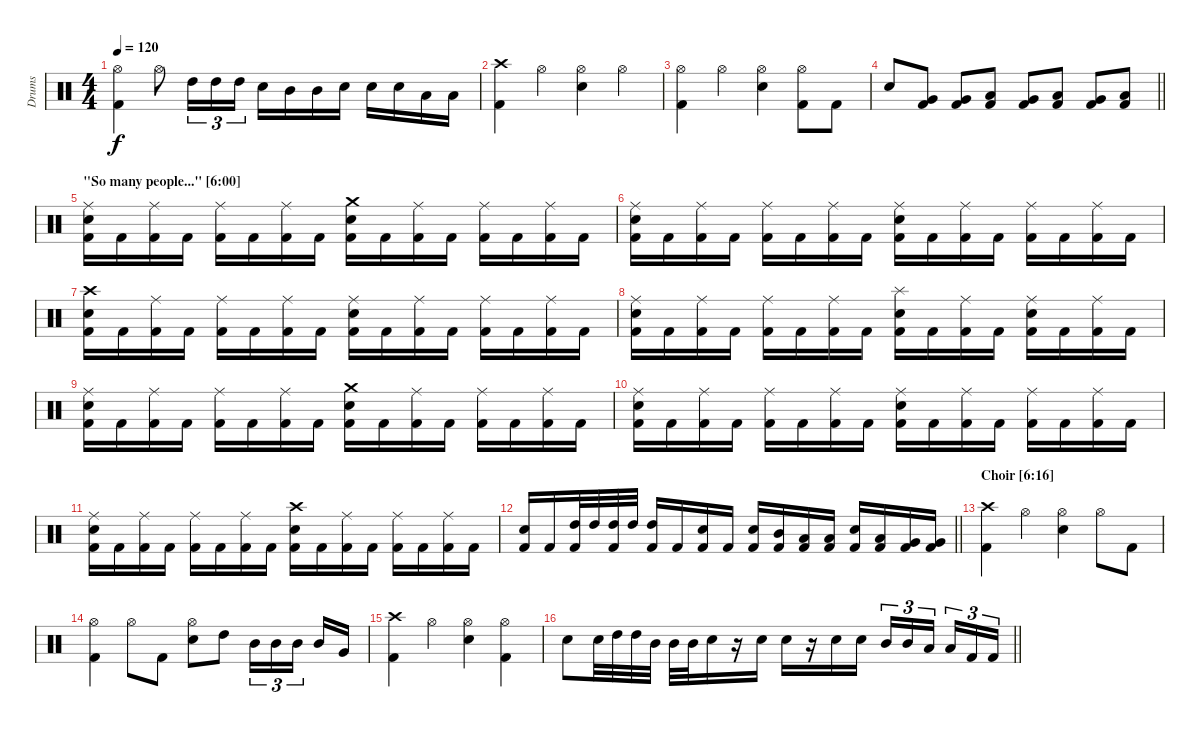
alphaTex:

\track ("Drums" "Drums") {instrument percussion}
\staff {score}
\articulation defaults
\ts (4 4)
\tempo 120
\clef neutral
\ks c
("Hi-Hat (open)" "Kick (hit) 2").4{dy f} "Hi-Hat (open)".8 "High Tom (hit)".16{tu (3 2)} "High Tom (hit)".16{tu (3 2)} "High Tom (hit)".16{tu (3 2)} "Snare (hit) 2".16 "Mid Tom (hit)".16 "Mid Tom (hit)".16 "Snare (hit) 2".16 "Snare (hit) 2".16 "Snare (hit) 2".16 "Low Tom (hit)".16 "Low Tom (hit)".16 |
("Crash high (hit)" "Kick (hit) 2").4 "Hi-Hat (open)".4 ("Hi-Hat (open)" "Snare (hit) 2").4 "Hi-Hat (open)".4 |
("Hi-Hat (open)" "Kick (hit) 2").4 "Hi-Hat (open)".4 ("Hi-Hat (open)" "Snare (hit) 2").4 ("Hi-Hat (open)" "Kick (hit) 2").8 "Kick (hit) 2".8 |
\barLineRight lightlight "Snare (hit) 2".8
("Very Low Tom (hit)" "Kick (hit) 2").8 ("Very Low Tom (hit)" "Kick (hit) 2").8 ("Low Tom (hit)" "Kick (hit) 2").8 ("Very Low Tom (hit)" "Kick (hit) 2").8 ("Low Tom (hit)" "Kick (hit) 2").8 ("Very Low Tom (hit)" "Kick (hit) 2").8 ("Low Tom (hit)" "Kick (hit) 2").8 |
\section ("" "\"So many people...\" [6:00]")
("Ride (middle)" "Snare (hit) 2" "Kick (hit) 2").16 "Kick (hit) 2".16 ("Ride (middle)" "Kick (hit) 2").16 "Kick (hit) 2".16 ("Ride (middle)" "Kick (hit) 2").16 "Kick (hit) 2".16 ("Ride (middle)" "Kick (hit) 2").16 "Kick (hit) 2".16 ("Crash medium (hit)" "Snare (hit) 2" "Kick (hit) 2").16 "Kick (hit) 2".16 ("Ride (middle)" "Kick (hit) 2").16 "Kick (hit) 2".16 ("Ride (middle)" "Kick (hit) 2").16 "Kick (hit) 2".16 ("Ride (middle)" "Kick (hit) 2").16 "Kick (hit) 2".16 |
("Ride (middle)" "Snare (hit) 2" "Kick (hit) 2").16 "Kick (hit) 2".16 ("Ride (middle)" "Kick (hit) 2").16 "Kick (hit) 2".16 ("Ride (middle)" "Kick (hit) 2").16 "Kick (hit) 2".16 ("Ride (middle)" "Kick (hit) 2").16 "Kick (hit) 2".16 ("Ride (middle)" "Snare (hit) 2" "Kick (hit) 2").16 "Kick (hit) 2".16 ("Ride (middle)" "Kick (hit) 2").16 "Kick (hit) 2".16 ("Ride (middle)" "Kick (hit) 2").16 "Kick (hit) 2".16 ("Ride (middle)" "Kick (hit) 2").16 "Kick (hit) 2".16 |
("Crash high (hit)" "Snare (hit) 2" "Kick (hit) 2").16 "Kick (hit) 2".16 ("Ride (middle)" "Kick (hit) 2").16 "Kick (hit) 2".16 ("Ride (middle)" "Kick (hit) 2").16 "Kick (hit) 2".16 ("Ride (middle)" "Kick (hit) 2").16 "Kick (hit) 2".16 ("Ride (middle)" "Snare (hit) 2" "Kick (hit) 2").16 "Kick (hit) 2".16 ("Ride (middle)" "Kick (hit) 2").16 "Kick (hit) 2".16 ("Ride (middle)" "Kick (hit) 2").16 "Kick (hit) 2".16 ("Ride (middle)" "Kick (hit) 2").16 "Kick (hit) 2".16 |
("Ride (middle)" "Snare (hit) 2" "Kick (hit) 2").16 "Kick (hit) 2".16 ("Ride (middle)" "Kick (hit) 2").16 "Kick (hit) 2".16 ("Ride (middle)" "Kick (hit) 2").16 "Kick (hit) 2".16 ("Ride (middle)" "Kick (hit) 2").16 "Kick (hit) 2".16 ("Splash (hit)" "Snare (hit) 2" "Kick (hit) 2").16 "Kick (hit) 2".16 ("Ride (middle)" "Kick (hit) 2").16 "Kick (hit) 2".16 ("Ride (middle)" "Snare (hit) 2" "Kick (hit) 2").16 "Kick (hit) 2".16 ("Ride (middle)" "Kick (hit) 2").16 "Kick (hit) 2".16 |
("Ride (middle)" "Snare (hit) 2" "Kick (hit) 2").16 "Kick (hit) 2".16 ("Ride (middle)" "Kick (hit) 2").16 "Kick (hit) 2".16 ("Ride (middle)" "Kick (hit) 2").16 "Kick (hit) 2".16 ("Ride (middle)" "Kick (hit) 2").16 "Kick (hit) 2".16 ("Crash medium (hit)" "Snare (hit) 2" "Kick (hit) 2").16 "Kick (hit) 2".16 ("Ride (middle)" "Kick (hit) 2").16 "Kick (hit) 2".16 ("Ride (middle)" "Kick (hit) 2").16 "Kick (hit) 2".16 ("Ride (middle)" "Kick (hit) 2").16 "Kick (hit) 2".16 |
("Ride (middle)" "Snare (hit) 2" "Kick (hit) 2").16 "Kick (hit) 2".16 ("Ride (middle)" "Kick (hit) 2").16 "Kick (hit) 2".16 ("Ride (middle)" "Kick (hit) 2").16 "Kick (hit) 2".16 ("Ride (middle)" "Kick (hit) 2").16 "Kick (hit) 2".16 ("Ride (middle)" "Snare (hit) 2" "Kick (hit) 2").16 "Kick (hit) 2".16 ("Ride (middle)" "Kick (hit) 2").16 "Kick (hit) 2".16 ("Ride (middle)" "Kick (hit) 2").16 "Kick (hit) 2".16 ("Ride (middle)" "Kick (hit) 2").16 "Kick (hit) 2".16 |
("Ride (middle)" "Snare (hit) 2" "Kick (hit) 2").16 "Kick (hit) 2".16 ("Ride (middle)" "Kick (hit) 2").16 "Kick (hit) 2".16 ("Ride (middle)" "Kick (hit) 2").16 "Kick (hit) 2".16 ("Ride (middle)" "Kick (hit) 2").16 "Kick (hit) 2".16 ("Crash high (hit)" "Snare (hit) 2" "Kick (hit) 2").16 "Kick (hit) 2".16 ("Ride (middle)" "Kick (hit) 2").16 "Kick (hit) 2".16 ("Ride (middle)" "Kick (hit) 2").16 "Kick (hit) 2".16 ("Ride (middle)" "Kick (hit) 2").16 "Kick (hit) 2".16 |
\barLineRight lightlight
("Snare (hit) 2" "Kick (hit) 2").16 "Kick (hit) 2".16 ("High Tom (hit)" "Kick (hit) 2").32 "High Tom (hit)".32 ("High Tom (hit)" "Kick (hit) 2").32 "High Tom (hit)".32 ("High Tom (hit)" "Kick (hit) 2").16 "Kick (hit) 2".16 ("Snare (hit) 2" "Kick (hit) 2").16 "Kick (hit) 2".16 ("Snare (hit) 2" "Kick (hit) 2").16 ("Mid Tom (hit)" "Kick (hit) 2").16 ("Low Tom (hit)" "Kick (hit) 2").16 ("Low Tom (hit)" "Kick (hit) 2").16 ("Snare (hit) 2" "Kick (hit) 2").16 ("Low Tom (hit)" "Kick (hit) 2").16 ("Very Low Tom (hit)" "Kick (hit) 2").16 ("Very Low Tom (hit)" "Kick (hit) 2").16 |
\section ("" "Choir [6:16]")
("Crash high (hit)" "Kick (hit) 2").4 "Hi-Hat (open)".4 ("Hi-Hat (open)" "Snare (hit) 2").4 "Hi-Hat (open)".8 "Kick (hit) 2".8 |
("Hi-Hat (open)" "Kick (hit) 2").4 "Hi-Hat (open)".8 "Kick (hit) 2".8 ("Hi-Hat (open)" "Snare (hit) 2").8 "High Tom (hit)".8 "Mid Tom (hit)".16{tu (3 2)} "Mid Tom (hit)".16{tu (3 2)} "Mid Tom (hit)".16{tu (3 2) beam splitsecondary} "Mid Tom (hit)".16 "Very Low Tom (hit)".16 |
("Crash high (hit)" "Kick (hit) 2").4 "Hi-Hat (open)".4 ("Hi-Hat (open)" "Snare (hit) 2").4 ("Hi-Hat (open)" "Kick (hit) 2").4 |
\barLineRight lightlight "Snare (hit) 2".8 "Snare (hit) 2".32 "High Tom (hit)".32 "High Tom (hit)".32 "Mid Tom (hit)".32 "Mid Tom (hit)".32 "Mid Tom (hit)".32 "Snare (hit) 2".16
r.16 "Snare (hit) 2".16 "Snare (hit) 2".16 r.16 "Snare (hit) 2".16 "Snare (hit) 2".16 "Mid Tom (hit)".16{tu (3 2)} "Mid Tom (hit)".16{tu (3 2)} "Low Tom (hit)".16{tu (3 2) beam splitsecondary} "Low Tom (hit)".16{tu (3 2)} "Kick (hit) 2".16{tu (3 2)} "Kick (hit) 2".16{tu (3 2)}
